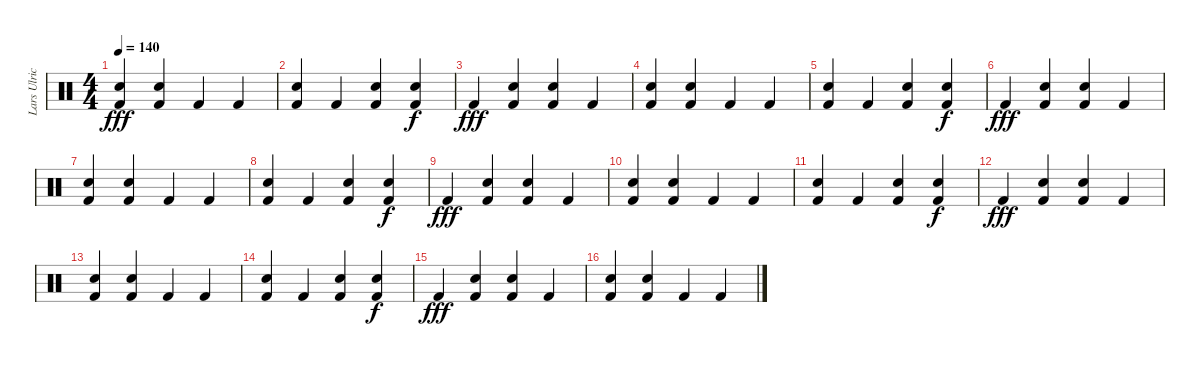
\track ("Lars Ulrich (Drums)" "Lars Ulric") {instrument percussion}
\staff {score}
\articulation defaults
\ts (4 4)
\tempo 140
\clef neutral
\ks c
("Electric Snare (hit)" "Kick (hit) 2").4{dy fff} ("Electric Snare (hit)" "Kick (hit) 2").4 "Kick (hit) 2".4 "Kick (hit) 2".4 |
("Electric Snare (hit)" "Kick (hit) 2").4 "Kick (hit) 2".4 ("Electric Snare (hit)" "Kick (hit) 2").4 ("Electric Snare (hit)" "Kick (hit) 2").4{dy f} |
"Kick (hit) 2".4{dy fff} ("Electric Snare (hit)" "Kick (hit) 2").4 ("Electric Snare (hit)" "Kick (hit) 2").4 "Kick (hit) 2".4 |
("Electric Snare (hit)" "Kick (hit) 2").4 ("Electric Snare (hit)" "Kick (hit) 2").4 "Kick (hit) 2".4 "Kick (hit) 2".4 |
("Electric Snare (hit)" "Kick (hit) 2").4 "Kick (hit) 2".4 ("Electric Snare (hit)" "Kick (hit) 2").4 ("Electric Snare (hit)" "Kick (hit) 2").4{dy f} |
"Kick (hit) 2".4{dy fff} ("Electric Snare (hit)" "Kick (hit) 2").4 ("Electric Snare (hit)" "Kick (hit) 2").4 "Kick (hit) 2".4 |
("Electric Snare (hit)" "Kick (hit) 2").4 ("Electric Snare (hit)" "Kick (hit) 2").4 "Kick (hit) 2".4 "Kick (hit) 2".4 |
("Electric Snare (hit)" "Kick (hit) 2").4 "Kick (hit) 2".4 ("Electric Snare (hit)" "Kick (hit) 2").4 ("Electric Snare (hit)" "Kick (hit) 2").4{dy f} |
"Kick (hit) 2".4{dy fff} ("Electric Snare (hit)" "Kick (hit) 2").4 ("Electric Snare (hit)" "Kick (hit) 2").4 "Kick (hit) 2".4 |
("Electric Snare (hit)" "Kick (hit) 2").4 ("Electric Snare (hit)" "Kick (hit) 2").4 "Kick (hit) 2".4 "Kick (hit) 2".4 |
("Electric Snare (hit)" "Kick (hit) 2").4 "Kick (hit) 2".4 ("Electric Snare (hit)" "Kick (hit) 2").4 ("Electric Snare (hit)" "Kick (hit) 2").4{dy f} |
"Kick (hit) 2".4{dy fff} ("Electric Snare (hit)" "Kick (hit) 2").4 ("Electric Snare (hit)" "Kick (hit) 2").4 "Kick (hit) 2".4 |
("Electric Snare (hit)" "Kick (hit) 2").4 ("Electric Snare (hit)" "Kick (hit) 2").4 "Kick (hit) 2".4 "Kick (hit) 2".4 |
("Electric Snare (hit)" "Kick (hit) 2").4 "Kick (hit) 2".4 ("Electric Snare (hit)" "Kick (hit) 2").4 ("Electric Snare (hit)" "Kick (hit) 2").4{dy f} |
"Kick (hit) 2".4{dy fff} ("Electric Snare (hit)" "Kick (hit) 2").4 ("Electric Snare (hit)" "Kick (hit) 2").4 "Kick (hit) 2".4 |
("Electric Snare (hit)" "Kick (hit) 2").4 ("Electric Snare (hit)" "Kick (hit) 2").4 "Kick (hit) 2".4 "Kick (hit) 2".4
